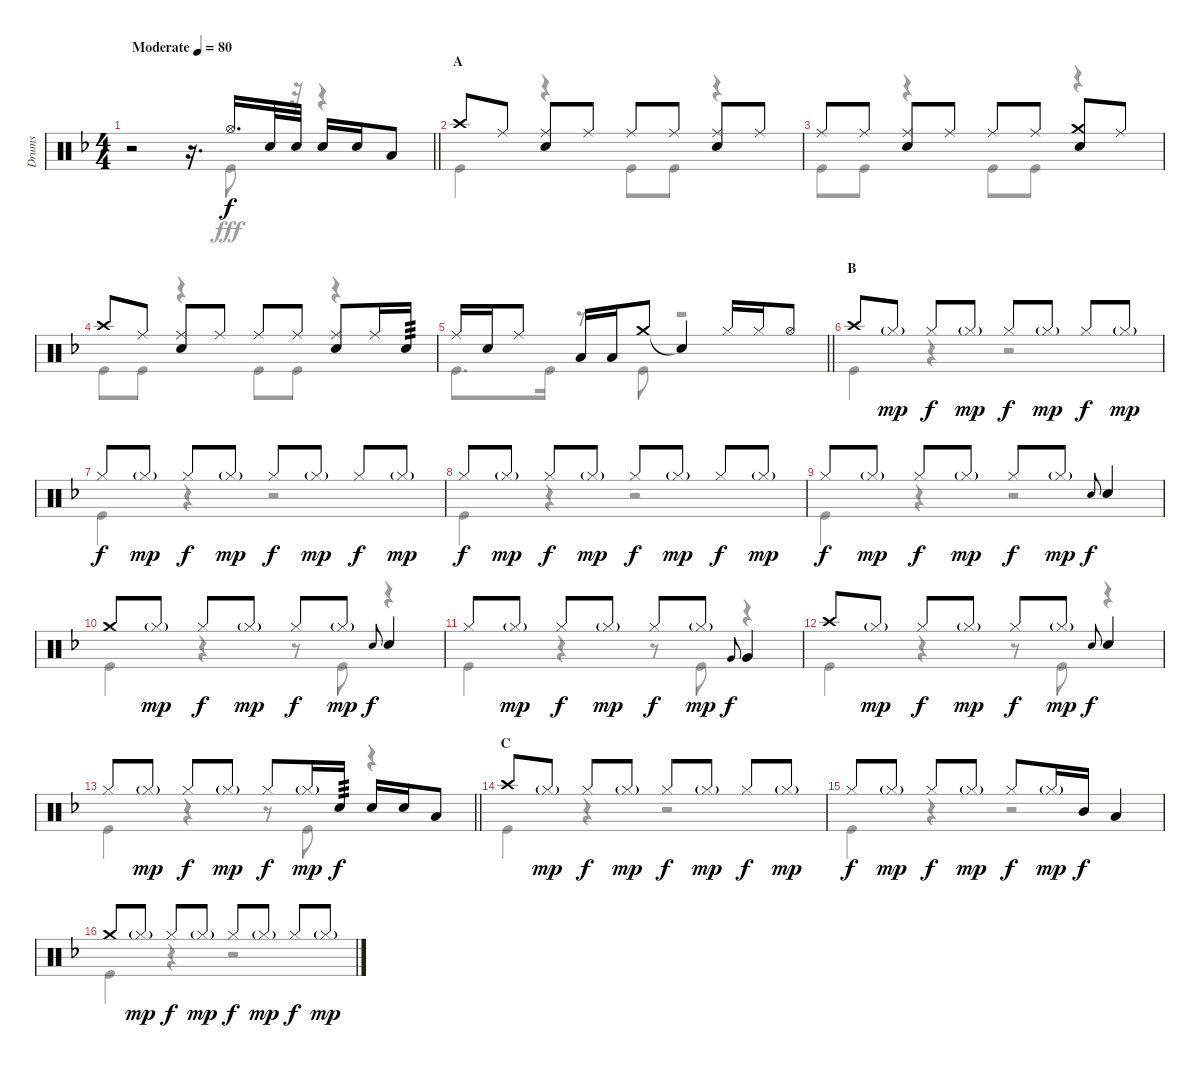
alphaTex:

\track ("Drums" "Drums") {instrument percussion}
\staff {score}
\articulation defaults
\voice
\ts (4 4)
\tempo (80 "Moderate")
\clef neutral
\barLineRight lightlight
\ks f
r.2{dy f} r.16{d} "Hi-Hat (open)".16{d} "Snare (hit) 2".32 "Snare (hit) 2".32 "Snare (hit) 2".16 "Snare (hit) 2".16 "Low Tom (hit)".8 |
\section ("" "A")
"Crash high (hit)".8 "Ride (middle)".8 ("Ride (middle)" "Snare (hit) 2").8 "Ride (middle)".8 "Ride (middle)".8 "Ride (middle)".8 ("Ride (middle)" "Snare (hit) 2").8 "Ride (middle)".8 |
"Ride (middle)".8 "Ride (middle)".8 ("Ride (middle)" "Snare (hit) 2").8 "Ride (middle)".8 "Ride (middle)".8 "Ride (middle)".8 ("Crash medium (hit)" "Snare (hit) 2").8 "Ride (middle)".8 |
"Crash high (hit)".8 "Ride (middle)".8 ("Ride (middle)" "Snare (hit) 2").8 "Ride (middle)".8 "Ride (middle)".8 "Ride (middle)".8 ("Ride (middle)" "Snare (hit) 2").8 "Ride (middle)".16 "Snare (hit) 2".16{tp 3} |
\barLineRight lightlight "Ride (middle)".16 "Snare (hit) 2".16 "Ride (middle)".8 "Low Tom (hit)".16 "Low Tom (hit)".16 "Crash medium (hit)".8 "Snare (hit)"{t}.4 "Hi-Hat (closed)".16 "Hi-Hat (closed)".16 "Hi-Hat (open)".8
|
\section ("" "B")
"Crash high (hit)".8 "Hi-Hat (closed)"{g}.8{dy mp} "Hi-Hat (closed)".8{dy f} "Hi-Hat (closed)"{g}.8{dy mp} "Hi-Hat (closed)".8{dy f} "Hi-Hat (closed)"{g}.8{dy mp} "Hi-Hat (closed)".8{dy f} "Hi-Hat (closed)"{g}.8{dy mp} |
"Hi-Hat (closed)".8{dy f} "Hi-Hat (closed)"{g}.8{dy mp} "Hi-Hat (closed)".8{dy f} "Hi-Hat (closed)"{g}.8{dy mp} "Hi-Hat (closed)".8{dy f} "Hi-Hat (closed)"{g}.8{dy mp} "Hi-Hat (closed)".8{dy f} "Hi-Hat (closed)"{g}.8{dy mp} |
"Hi-Hat (closed)".8{dy f} "Hi-Hat (closed)"{g}.8{dy mp} "Hi-Hat (closed)".8{dy f} "Hi-Hat (closed)"{g}.8{dy mp} "Hi-Hat (closed)".8{dy f} "Hi-Hat (closed)"{g}.8{dy mp} "Hi-Hat (closed)".8{dy f} "Hi-Hat (closed)"{g}.8{dy mp} |
"Hi-Hat (closed)".8{dy f} "Hi-Hat (closed)"{g}.8{dy mp} "Hi-Hat (closed)".8{dy f} "Hi-Hat (closed)"{g}.8{dy mp} "Hi-Hat (closed)".8{dy f} "Hi-Hat (closed)"{g}.8{dy mp} "Snare (hit) 2".8{gr onbeat dy f} "Snare (hit) 2".4 |
"Crash medium (hit)".8 "Hi-Hat (closed)"{g}.8{dy mp} "Hi-Hat (closed)".8{dy f} "Hi-Hat (closed)"{g}.8{dy mp} "Hi-Hat (closed)".8{dy f} "Hi-Hat (closed)"{g}.8{dy mp} "Snare (hit) 2".8{gr onbeat dy f} "Snare (hit) 2".4 |
"Hi-Hat (closed)".8 "Hi-Hat (closed)"{g}.8{dy mp} "Hi-Hat (closed)".8{dy f} "Hi-Hat (closed)"{g}.8{dy mp} "Hi-Hat (closed)".8{dy f} "Hi-Hat (closed)"{g}.8{dy mp} "Very Low Tom (hit)".8{gr onbeat dy f} "Very Low Tom (hit)".4 |
"Crash high (hit)".8 "Hi-Hat (closed)"{g}.8{dy mp} "Hi-Hat (closed)".8{dy f} "Hi-Hat (closed)"{g}.8{dy mp} "Hi-Hat (closed)".8{dy f} "Hi-Hat (closed)"{g}.8{dy mp} "Snare (hit) 2".8{gr onbeat dy f} "Snare (hit) 2".4 |
\barLineRight lightlight "Hi-Hat (closed)".8 "Hi-Hat (closed)"{g}.8{dy mp} "Hi-Hat (closed)".8{dy f} "Hi-Hat (closed)"{g}.8{dy mp} "Hi-Hat (closed)".8{dy f} "Hi-Hat (closed)"{g}.16{dy mp} "Snare (hit) 2".16{tp 3 dy f} "Snare (hit) 2".16 "Snare (hit) 2".16 "Low Tom (hit)".8
|
\section ("" "C")
"Crash high (hit)".8 "Hi-Hat (closed)"{g}.8{dy mp} "Hi-Hat (closed)".8{dy f} "Hi-Hat (closed)"{g}.8{dy mp} "Hi-Hat (closed)".8{dy f} "Hi-Hat (closed)"{g}.8{dy mp} "Hi-Hat (closed)".8{dy f} "Hi-Hat (closed)"{g}.8{dy mp} |
"Hi-Hat (closed)".8{dy f} "Hi-Hat (closed)"{g}.8{dy mp} "Hi-Hat (closed)".8{dy f} "Hi-Hat (closed)"{g}.8{dy mp} "Hi-Hat (closed)".8{dy f} "Hi-Hat (closed)"{g}.16{dy mp} "Mid Tom (hit)".16{dy f} "Low Tom (hit)".4 |
"Crash medium (hit)".8 "Hi-Hat (closed)"{g}.8{dy mp} "Hi-Hat (closed)".8{dy f} "Hi-Hat (closed)"{g}.8{dy mp} "Hi-Hat (closed)".8{dy f} "Hi-Hat (closed)"{g}.8{dy mp} "Hi-Hat (closed)".8{dy f} "Hi-Hat (closed)"{g}.8{dy mp}
\voice
\clef neutral
\ottava regular
\simile none
\barLineRight lightlight
\ks f
r.2{dy fff} r.16{d} "Kick (hit)".8 r.32 r.4 |
"Kick (hit)".4 r.4 "Kick (hit)".8 "Kick (hit)".8 r.4 |
"Kick (hit)".8 "Kick (hit)".8 r.4 "Kick (hit)".8 "Kick (hit)".8 r.4 |
"Kick (hit)".8 "Kick (hit)".8 r.4 "Kick (hit)".8 "Kick (hit)".8 r.4 |
\barLineRight lightlight "Kick (hit)".8{d} "Kick (hit)".16
r.8 "Kick (hit)".8 r.2 |
"Kick (hit)".4 r.4 r.2 |
"Kick (hit)".4 r.4 r.2 |
"Kick (hit)".4 r.4 r.2 |
"Kick (hit)".4 r.4 r.2 |
"Kick (hit)".4 r.4 r.8 "Kick (hit)".8 r.4 |
"Kick (hit)".4 r.4 r.8 "Kick (hit)".8 r.4 |
"Kick (hit)".4 r.4 r.8 "Kick (hit)".8 r.4 |
\barLineRight lightlight "Kick (hit)".4
r.4 r.8 "Kick (hit)".8 r.4 |
"Kick (hit)".4 r.4 r.2 |
"Kick (hit)".4 r.4 r.2 |
"Kick (hit)".4 r.4 r.2
